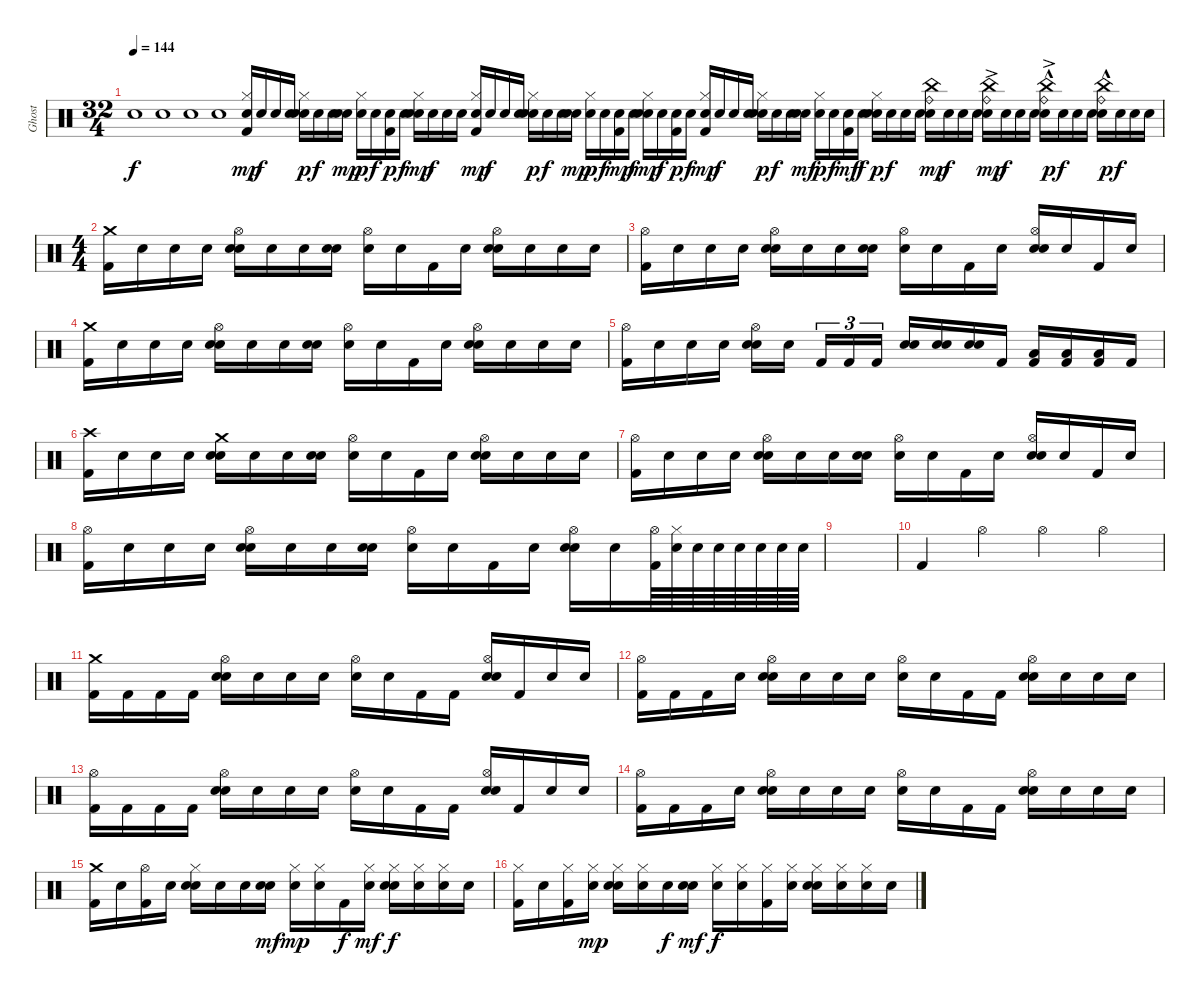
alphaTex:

\track ("Ghost" "Ghost") {instrument percussion}
\staff {score}
\articulation defaults
\ts (32 4)
\tempo 144
\clef neutral
\ks c "Snare (hit)".1{dy f} "Snare (hit)".1 "Snare (hit)".1 "Snare (hit)".1
("Hi-Hat (closed)" "Kick (hit) 2" "Snare (hit)").16{dy mp} "Snare (hit)".16{dy f} "Snare (hit)".16 "Snare (hit)".16 ("Hi-Hat (closed)" "Snare (hit) 2" "Snare (hit)").16{dy p} "Snare (hit)".16{dy f} "Snare (hit)".16 ("Snare (hit) 2" "Snare (hit)").16{dy mp} ("Hi-Hat (closed)" "Snare (hit)").16{dy p} "Snare (hit)".16{dy f} ("Kick (hit) 2" "Snare (hit)").16{dy p} "Snare (hit)".16{dy f} ("Hi-Hat (closed)" "Snare (hit) 2" "Snare (hit)").16{dy mp} "Snare (hit)".16{dy f} "Snare (hit)".16 "Snare (hit)".16 ("Hi-Hat (closed)" "Kick (hit) 2" "Snare (hit)").16{dy mp} "Snare (hit)".16{dy f} "Snare (hit)".16 "Snare (hit)".16 ("Hi-Hat (closed)" "Snare (hit) 2" "Snare (hit)").16{dy p} "Snare (hit)".16{dy f} "Snare (hit)".16 ("Snare (hit) 2" "Snare (hit)").16{dy mp} ("Hi-Hat (closed)" "Snare (hit)").16{dy p} "Snare (hit)".16{dy f} ("Kick (hit) 2" "Snare (hit)").16{dy mp} "Snare (hit)".16{dy f} ("Hi-Hat (closed)" "Snare (hit) 2" "Snare (hit)").16{dy mp} "Snare (hit)".16{dy f} ("Kick (hit) 2" "Snare (hit)").16{dy p} "Snare (hit)".16{dy f} ("Hi-Hat (closed)" "Kick (hit) 2" "Snare (hit)").16{dy mp} "Snare (hit)".16{dy f} "Snare (hit)".16 "Snare (hit)".16 ("Hi-Hat (closed)" "Snare (hit) 2" "Snare (hit)").16{dy p} "Snare (hit)".16{dy f} "Snare (hit)".16 ("Snare (hit) 2" "Snare (hit)").16{dy mf} ("Hi-Hat (closed)" "Snare (hit)").16{dy p} "Snare (hit)".16{dy f} ("Kick (hit) 2" "Snare (hit)").16{dy mf} "Snare (hit)".16{dy f} ("Hi-Hat (closed)" "Snare (hit) 2" "Snare (hit)").16{dy p} "Snare (hit)".16{dy f} "Snare (hit)".16 "Snare (hit)".16 ("Ride (bell)" "China (hit)" "Snare (hit)").16{dy mp} "Snare (hit)".16{dy f} "Snare (hit)".16 "Snare (hit)".16 ("Ride (bell)"{ac} "China (hit)"{ac} "Snare (hit)").16{dy mp} "Snare (hit)".16{dy f} "Snare (hit)".16 "Snare (hit)".16 ("Ride (bell)"{hac} "China (hit)"{ac} "Snare (hit)").16{dy p} "Snare (hit)".16{dy f} "Snare (hit)".16 "Snare (hit)".16 ("Ride (bell)"{hac} "China (hit)"{hac} "Snare (hit)").16{dy p} "Snare (hit)".16{dy f} "Snare (hit)".16 "Snare (hit)".16 |
\ts (4 4)
("Crash medium (hit)" "Kick (hit) 2").16 "Snare (hit)".16 "Snare (hit)".16 "Snare (hit)".16 ("Hi-Hat (open)" "Electric Snare (hit)" "Snare (hit)").16 "Snare (hit)".16 "Snare (hit)".16 ("Electric Snare (hit)" "Snare (hit)").16 ("Hi-Hat (open)" "Snare (hit)").16 "Snare (hit)".16 "Kick (hit) 2".16 "Snare (hit)".16 ("Hi-Hat (open)" "Electric Snare (hit)" "Snare (hit)").16 "Snare (hit)".16 "Snare (hit)".16 "Snare (hit)".16 |
("Hi-Hat (open)" "Kick (hit) 2").16 "Snare (hit)".16 "Snare (hit)".16 "Snare (hit)".16 ("Hi-Hat (open)" "Electric Snare (hit)" "Snare (hit)").16 "Snare (hit)".16 "Snare (hit)".16 ("Electric Snare (hit)" "Snare (hit)").16 ("Hi-Hat (open)" "Snare (hit)").16 "Snare (hit)".16 "Kick (hit) 2".16 "Snare (hit)".16 ("Hi-Hat (open)" "Electric Snare (hit)" "Snare (hit)").16 "Snare (hit)".16 "Kick (hit) 2".16 "Snare (hit)".16 |
("Crash medium (hit)" "Kick (hit) 2").16 "Snare (hit)".16 "Snare (hit)".16 "Snare (hit)".16 ("Hi-Hat (open)" "Electric Snare (hit)" "Snare (hit)").16 "Snare (hit)".16 "Snare (hit)".16 ("Electric Snare (hit)" "Snare (hit)").16 ("Hi-Hat (open)" "Snare (hit)").16 "Snare (hit)".16 "Kick (hit) 2".16 "Snare (hit)".16 ("Hi-Hat (open)" "Electric Snare (hit)" "Snare (hit)").16 "Snare (hit)".16 "Snare (hit)".16 "Snare (hit)".16 |
("Hi-Hat (open)" "Kick (hit) 2").16 "Snare (hit)".16 "Snare (hit)".16 "Snare (hit)".16 ("Hi-Hat (open)" "Electric Snare (hit)" "Snare (hit)").16 "Snare (hit)".16{beam splitsecondary} "Kick (hit) 2".16{tu (3 2)} "Kick (hit) 2".16{tu (3 2)} "Kick (hit) 2".16{tu (3 2)} ("Electric Snare (hit)" "Snare (hit)").16 ("Electric Snare (hit)" "Snare (hit)").16 ("Electric Snare (hit)" "Snare (hit)").16 "Kick (hit) 2".16 ("Low Tom (hit)" "Kick (hit) 2").16 ("Low Tom (hit)" "Kick (hit) 2").16 ("Low Tom (hit)" "Kick (hit) 2").16 "Kick (hit) 2".16 |
("Crash high (hit)" "Kick (hit) 2").16 "Snare (hit)".16 "Snare (hit)".16 "Snare (hit)".16 ("Crash medium (hit)" "Electric Snare (hit)" "Snare (hit)").16 "Snare (hit)".16 "Snare (hit)".16 ("Electric Snare (hit)" "Snare (hit)").16 ("Hi-Hat (open)" "Snare (hit)").16 "Snare (hit)".16 "Kick (hit) 2".16 "Snare (hit)".16 ("Hi-Hat (open)" "Electric Snare (hit)" "Snare (hit)").16 "Snare (hit)".16 "Snare (hit)".16 "Snare (hit)".16 |
("Hi-Hat (open)" "Kick (hit) 2").16 "Snare (hit)".16 "Snare (hit)".16 "Snare (hit)".16 ("Hi-Hat (open)" "Electric Snare (hit)" "Snare (hit)").16 "Snare (hit)".16 "Snare (hit)".16 ("Electric Snare (hit)" "Snare (hit)").16 ("Hi-Hat (open)" "Snare (hit)").16 "Snare (hit)".16 "Kick (hit) 2".16 "Snare (hit)".16 ("Hi-Hat (open)" "Electric Snare (hit)" "Snare (hit)").16 "Snare (hit)".16 "Kick (hit) 2".16 "Snare (hit)".16 |
("Hi-Hat (open)" "Kick (hit) 2").16 "Snare (hit)".16 "Snare (hit)".16 "Snare (hit)".16 ("Hi-Hat (open)" "Electric Snare (hit)" "Snare (hit)").16 "Snare (hit)".16 "Snare (hit)".16 ("Electric Snare (hit)" "Snare (hit)").16 ("Hi-Hat (open)" "Snare (hit)").16 "Snare (hit)".16 "Kick (hit) 2".16 "Snare (hit)".16 ("Hi-Hat (open)" "Electric Snare (hit)" "Snare (hit)").16 "Snare (hit)".16 ("Hi-Hat (open)" "Kick (hit) 2").64 ("Hi-Hat (closed)" "Snare (hit)").64 "Snare (hit)".64 "Snare (hit)".64 "Snare (hit)".64 "Snare (hit)".64 "Snare (hit)".64 "Snare (hit)".64 |
|
"Kick (hit) 2".4 "Hi-Hat (open)".4 "Hi-Hat (open)".4 "Hi-Hat (open)".4 |
("Crash medium (hit)" "Kick (hit) 2").16 "Kick (hit) 2".16 "Kick (hit) 2".16 "Kick (hit) 2".16 ("Hi-Hat (open)" "Electric Snare (hit)" "Snare (hit)").16 "Snare (hit)".16 "Snare (hit)".16 "Electric Snare (hit)".16 ("Hi-Hat (open)" "Snare (hit)").16 "Snare (hit)".16 "Kick (hit) 2".16 "Kick (hit) 2".16 ("Hi-Hat (open)" "Electric Snare (hit)" "Snare (hit)").16 "Kick (hit) 2".16 "Snare (hit)".16 "Snare (hit)".16 |
("Hi-Hat (open)" "Kick (hit) 2").16 "Kick (hit) 2".16 "Kick (hit) 2".16 "Snare (hit)".16 ("Hi-Hat (open)" "Electric Snare (hit)" "Snare (hit)").16 "Snare (hit)".16 "Snare (hit)".16 "Electric Snare (hit)".16 ("Hi-Hat (open)" "Snare (hit)").16 "Snare (hit)".16 "Kick (hit) 2".16 "Kick (hit) 2".16 ("Hi-Hat (open)" "Electric Snare (hit)" "Snare (hit)").16 "Snare (hit)".16 "Snare (hit)".16 "Snare (hit)".16 |
("Hi-Hat (open)" "Kick (hit) 2").16 "Kick (hit) 2".16 "Kick (hit) 2".16 "Kick (hit) 2".16 ("Hi-Hat (open)" "Electric Snare (hit)" "Snare (hit)").16 "Snare (hit)".16 "Snare (hit)".16 "Electric Snare (hit)".16 ("Hi-Hat (open)" "Snare (hit)").16 "Snare (hit)".16 "Kick (hit) 2".16 "Kick (hit) 2".16 ("Hi-Hat (open)" "Electric Snare (hit)" "Snare (hit)").16 "Kick (hit) 2".16 "Snare (hit)".16 "Snare (hit)".16 |
("Hi-Hat (open)" "Kick (hit) 2").16 "Kick (hit) 2".16 "Kick (hit) 2".16 "Snare (hit)".16 ("Hi-Hat (open)" "Electric Snare (hit)" "Snare (hit)").16 "Snare (hit)".16 "Snare (hit)".16 "Electric Snare (hit)".16 ("Hi-Hat (open)" "Snare (hit)").16 "Snare (hit)".16 "Kick (hit) 2".16 "Kick (hit) 2".16 ("Hi-Hat (open)" "Electric Snare (hit)" "Snare (hit)").16 "Snare (hit)".16 "Snare (hit)".16 "Snare (hit)".16 |
("Crash medium (hit)" "Kick (hit) 2").16 "Snare (hit)".16 ("Hi-Hat (open)" "Kick (hit) 2").16 "Snare (hit)".16 ("Hi-Hat (closed)" "Electric Snare (hit)" "Snare (hit)").16 "Snare (hit)".16 "Snare (hit)".16 ("Electric Snare (hit)" "Snare (hit)").16{dy mf} ("Hi-Hat (closed)" "Snare (hit)").16{dy mp} ("Hi-Hat (closed)" "Snare (hit)").16 "Kick (hit) 2".16{dy f} ("Hi-Hat (closed)" "Snare (hit)").16{dy mf} ("Hi-Hat (closed)" "Electric Snare (hit)" "Snare (hit)").16{dy f} ("Hi-Hat (closed)" "Snare (hit)").16 ("Hi-Hat (closed)" "Snare (hit)").16 "Snare (hit)".16 |
("Hi-Hat (closed)" "Kick (hit) 2").16 "Snare (hit)".16 ("Hi-Hat (closed)" "Kick (hit) 2").16 ("Hi-Hat (closed)" "Snare (hit)").16{dy mp} ("Hi-Hat (closed)" "Electric Snare (hit)" "Snare (hit)").16 ("Hi-Hat (closed)" "Snare (hit)").16 "Snare (hit)".16{dy f} ("Electric Snare (hit)" "Snare (hit)").16{dy mf} ("Hi-Hat (closed)" "Snare (hit)").16{dy f} ("Hi-Hat (closed)" "Snare (hit)").16 ("Hi-Hat (closed)" "Kick (hit) 2").16 ("Hi-Hat (closed)" "Snare (hit)").16 ("Hi-Hat (closed)" "Electric Snare (hit)" "Snare (hit)").16 ("Hi-Hat (closed)" "Snare (hit)").16 ("Hi-Hat (closed)" "Snare (hit)").16 "Snare (hit)".16
